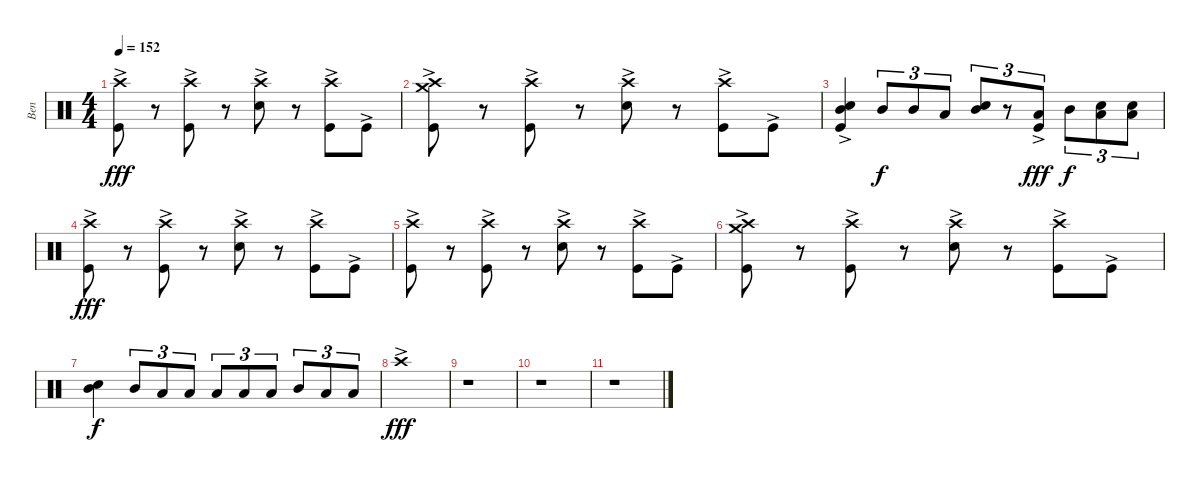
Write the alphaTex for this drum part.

\track ("Ben" "Ben") {instrument percussion}
\staff {score}
\articulation defaults
\ts (4 4)
\tempo 152
\clef neutral
\ks c
("Crash high (hit)" "Kick (hit)"{ac}).8{dy fff} r.8 ("Crash high (hit)" "Kick (hit)"{ac}).8 r.8 ("Crash high (hit)" "Electric Snare (hit)"{ac}).8 r.8 ("Crash high (hit)" "Kick (hit)"{ac}).8 "Kick (hit)"{ac}.8 |
("Crash high (hit)" "Crash medium (hit)"{ac} "Kick (hit)"{ac}).8 r.8 ("Crash high (hit)" "Kick (hit)"{ac}).8 r.8 ("Crash high (hit)" "Electric Snare (hit)"{ac}).8 r.8 ("Crash high (hit)" "Kick (hit)"{ac}).8 "Kick (hit)"{ac}.8 |
("Mid Tom (hit)" "Electric Snare (hit)" "Kick (hit)"{ac}).4 "Mid Tom (hit)".8{tu (3 2) dy f} "Mid Tom (hit)".8{tu (3 2)} "Low Tom (hit)".8{tu (3 2)} ("Mid Tom (hit)" "Electric Snare (hit)").8{tu (3 2)} r.8{tu (3 2)} ("Low Tom (hit)" "Kick (hit)"{ac}).8{tu (3 2) dy fff} "Mid Tom (hit)".8{tu (3 2) dy f} ("Low Tom (hit)" "Electric Snare (hit)").8{tu (3 2)} ("Low Floor Tom (hit)" "Electric Snare (hit)").8{tu (3 2)} |
("Crash high (hit)" "Kick (hit)"{ac}).8{dy fff} r.8 ("Crash high (hit)" "Kick (hit)"{ac}).8 r.8 ("Crash high (hit)" "Electric Snare (hit)"{ac}).8 r.8 ("Crash high (hit)" "Kick (hit)"{ac}).8 "Kick (hit)"{ac}.8 |
("Crash high (hit)" "Kick (hit)"{ac}).8 r.8 ("Crash high (hit)" "Kick (hit)"{ac}).8 r.8 ("Crash high (hit)" "Electric Snare (hit)"{ac}).8 r.8 ("Crash high (hit)" "Kick (hit)"{ac}).8 "Kick (hit)"{ac}.8 |
("Crash high (hit)" "Crash medium (hit)"{ac} "Kick (hit)"{ac}).8 r.8 ("Crash high (hit)" "Kick (hit)"{ac}).8 r.8 ("Crash high (hit)" "Electric Snare (hit)"{ac}).8 r.8 ("Crash high (hit)" "Kick (hit)"{ac}).8 "Kick (hit)"{ac}.8 |
("Mid Tom (hit)" "Electric Snare (hit)").4{dy f} "Mid Tom (hit)".8{tu (3 2)} "Low Tom (hit)".8{tu (3 2)} "Low Floor Tom (hit)".8{tu (3 2)} "Low Floor Tom (hit)".8{tu (3 2)} "Low Tom (hit)".8{tu (3 2)} "Low Floor Tom (hit)".8{tu (3 2)} "Mid Tom (hit)".8{tu (3 2)} "Low Tom (hit)".8{tu (3 2)} "Low Floor Tom (hit)".8{tu (3 2)} |
"Crash high (hit)"{ac}.1{dy fff} |
r.1 |
r.1 |
r.1
